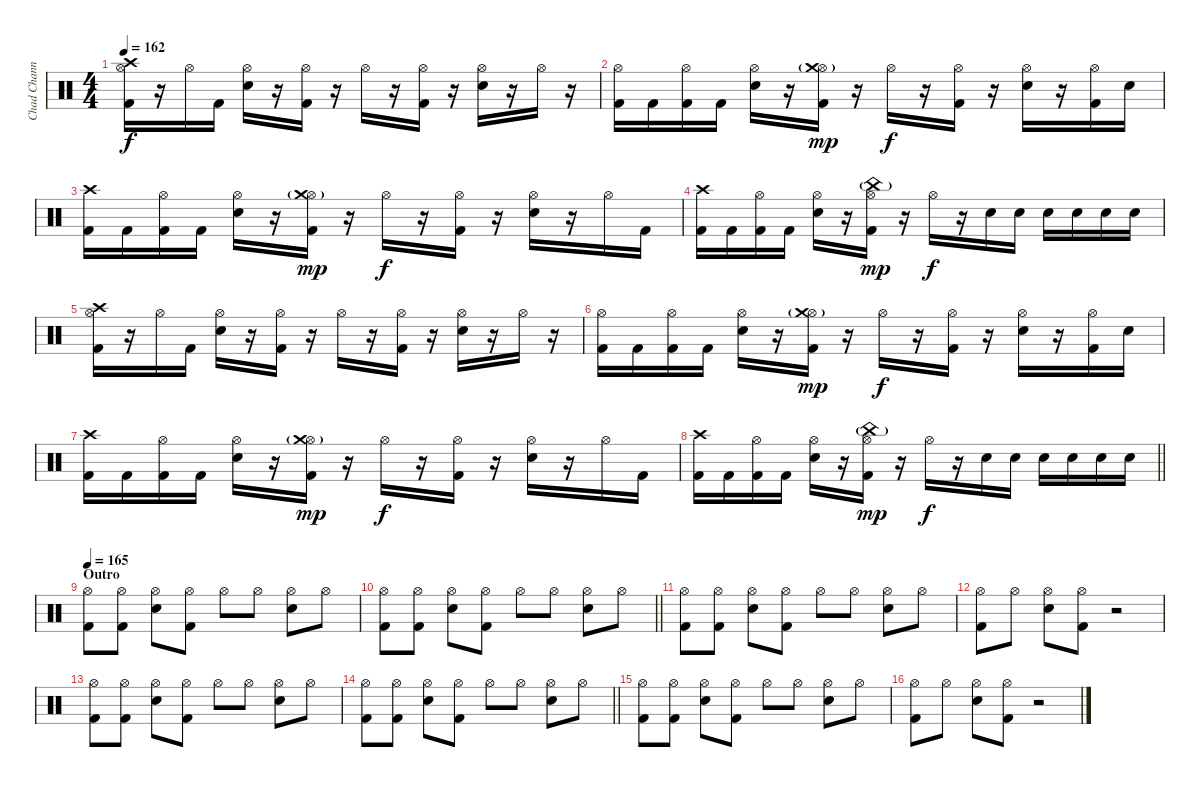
\track ("Chad Channing" "Chad Chann") {instrument percussion}
\staff {score}
\articulation defaults
\ts (4 4)
\tempo 162
\clef neutral
\ks c
("Crash high (hit)" "Hi-Hat (open)" "Kick (hit) 2").16{dy f} r.16 "Hi-Hat (open)".16 "Kick (hit) 2".16 ("Hi-Hat (open)" "Snare (hit) 2").16 r.16 ("Hi-Hat (open)" "Kick (hit) 2").16 r.16 "Hi-Hat (open)".16 r.16 ("Hi-Hat (open)" "Kick (hit) 2").16 r.16 ("Hi-Hat (open)" "Snare (hit) 2").16 r.16 "Hi-Hat (open)".16 r.16 |
("Hi-Hat (open)" "Kick (hit) 2").16 "Kick (hit) 2".16 ("Hi-Hat (open)" "Kick (hit) 2").16 "Kick (hit) 2".16 ("Hi-Hat (open)" "Snare (hit) 2").16 r.16 ("Hi-Hat (open)" "Crash medium (hit)"{g} "Kick (hit) 2").16{dy mp} r.16 "Hi-Hat (open)".16{dy f} r.16 ("Hi-Hat (open)" "Kick (hit) 2").16 r.16 ("Hi-Hat (open)" "Snare (hit) 2").16 r.16 ("Hi-Hat (open)" "Kick (hit) 2").16 "Snare (hit) 2".16 |
("Crash high (hit)" "Kick (hit) 2").16 "Kick (hit) 2".16 ("Hi-Hat (open)" "Kick (hit) 2").16 "Kick (hit) 2".16 ("Hi-Hat (open)" "Snare (hit) 2").16 r.16 ("Hi-Hat (open)" "Crash medium (hit)"{g} "Kick (hit) 2").16{dy mp} r.16 "Hi-Hat (open)".16{dy f} r.16 ("Hi-Hat (open)" "Kick (hit) 2").16 r.16 ("Hi-Hat (open)" "Snare (hit) 2").16 r.16 "Hi-Hat (open)".16 "Kick (hit) 2".16 |
("Crash high (hit)" "Kick (hit) 2").16 "Kick (hit) 2".16 ("Hi-Hat (open)" "Kick (hit) 2").16 "Kick (hit) 2".16 ("Hi-Hat (open)" "Snare (hit) 2").16 r.16 ("Hi-Hat (open)" "China (hit)"{g} "Kick (hit) 2").16{dy mp} r.16 "Hi-Hat (open)".16{dy f} r.16 "Snare (hit) 2".16 "Snare (hit) 2".16 "Snare (hit) 2".16 "Snare (hit) 2".16 "Snare (hit) 2".16 "Snare (hit) 2".16 |
("Crash high (hit)" "Hi-Hat (open)" "Kick (hit) 2").16 r.16 "Hi-Hat (open)".16 "Kick (hit) 2".16 ("Hi-Hat (open)" "Snare (hit) 2").16 r.16 ("Hi-Hat (open)" "Kick (hit) 2").16 r.16 "Hi-Hat (open)".16 r.16 ("Hi-Hat (open)" "Kick (hit) 2").16 r.16 ("Hi-Hat (open)" "Snare (hit) 2").16 r.16 "Hi-Hat (open)".16 r.16 |
("Hi-Hat (open)" "Kick (hit) 2").16 "Kick (hit) 2".16 ("Hi-Hat (open)" "Kick (hit) 2").16 "Kick (hit) 2".16 ("Hi-Hat (open)" "Snare (hit) 2").16 r.16 ("Hi-Hat (open)" "Crash medium (hit)"{g} "Kick (hit) 2").16{dy mp} r.16 "Hi-Hat (open)".16{dy f} r.16 ("Hi-Hat (open)" "Kick (hit) 2").16 r.16 ("Hi-Hat (open)" "Snare (hit) 2").16 r.16 ("Hi-Hat (open)" "Kick (hit) 2").16 "Snare (hit) 2".16 |
("Crash high (hit)" "Kick (hit) 2").16 "Kick (hit) 2".16 ("Hi-Hat (open)" "Kick (hit) 2").16 "Kick (hit) 2".16 ("Hi-Hat (open)" "Snare (hit) 2").16 r.16 ("Hi-Hat (open)" "Crash medium (hit)"{g} "Kick (hit) 2").16{dy mp} r.16 "Hi-Hat (open)".16{dy f} r.16 ("Hi-Hat (open)" "Kick (hit) 2").16 r.16 ("Hi-Hat (open)" "Snare (hit) 2").16 r.16 "Hi-Hat (open)".16 "Kick (hit) 2".16 |
\barLineRight lightlight
("Crash high (hit)" "Kick (hit) 2").16 "Kick (hit) 2".16 ("Hi-Hat (open)" "Kick (hit) 2").16 "Kick (hit) 2".16 ("Hi-Hat (open)" "Snare (hit) 2").16 r.16 ("Hi-Hat (open)" "China (hit)"{g} "Kick (hit) 2").16{dy mp} r.16 "Hi-Hat (open)".16{dy f} r.16 "Snare (hit) 2".16 "Snare (hit) 2".16 "Snare (hit) 2".16 "Snare (hit) 2".16 "Snare (hit) 2".16 "Snare (hit) 2".16 |
\section ("" "Outro")
\tempo 165
("Hi-Hat (open)" "Kick (hit) 2").8 ("Hi-Hat (open)" "Kick (hit) 2").8 ("Hi-Hat (open)" "Snare (hit) 2").8 ("Hi-Hat (open)" "Kick (hit) 2").8 "Hi-Hat (open)".8 "Hi-Hat (open)".8 ("Hi-Hat (open)" "Snare (hit) 2").8 "Hi-Hat (open)".8 |
\barLineRight lightlight
("Hi-Hat (open)" "Kick (hit) 2").8 ("Hi-Hat (open)" "Kick (hit) 2").8 ("Hi-Hat (open)" "Snare (hit) 2").8 ("Hi-Hat (open)" "Kick (hit) 2").8 "Hi-Hat (open)".8 "Hi-Hat (open)".8 ("Hi-Hat (open)" "Snare (hit) 2").8 "Hi-Hat (open)".8 |
("Hi-Hat (open)" "Kick (hit) 2").8 ("Hi-Hat (open)" "Kick (hit) 2").8 ("Hi-Hat (open)" "Snare (hit) 2").8 ("Hi-Hat (open)" "Kick (hit) 2").8 "Hi-Hat (open)".8 "Hi-Hat (open)".8 ("Hi-Hat (open)" "Snare (hit) 2").8 "Hi-Hat (open)".8 |
("Hi-Hat (open)" "Kick (hit) 2").8 "Hi-Hat (open)".8 ("Hi-Hat (open)" "Snare (hit) 2").8 ("Hi-Hat (open)" "Kick (hit) 2").8 r.2 |
("Hi-Hat (open)" "Kick (hit) 2").8 ("Hi-Hat (open)" "Kick (hit) 2").8 ("Hi-Hat (open)" "Snare (hit) 2").8 ("Hi-Hat (open)" "Kick (hit) 2").8 "Hi-Hat (open)".8 "Hi-Hat (open)".8 ("Hi-Hat (open)" "Snare (hit) 2").8 "Hi-Hat (open)".8 |
\barLineRight lightlight
("Hi-Hat (open)" "Kick (hit) 2").8 ("Hi-Hat (open)" "Kick (hit) 2").8 ("Hi-Hat (open)" "Snare (hit) 2").8 ("Hi-Hat (open)" "Kick (hit) 2").8 "Hi-Hat (open)".8 "Hi-Hat (open)".8 ("Hi-Hat (open)" "Snare (hit) 2").8 "Hi-Hat (open)".8 |
("Hi-Hat (open)" "Kick (hit) 2").8 ("Hi-Hat (open)" "Kick (hit) 2").8 ("Hi-Hat (open)" "Snare (hit) 2").8 ("Hi-Hat (open)" "Kick (hit) 2").8 "Hi-Hat (open)".8 "Hi-Hat (open)".8 ("Hi-Hat (open)" "Snare (hit) 2").8 "Hi-Hat (open)".8 |
("Hi-Hat (open)" "Kick (hit) 2").8 "Hi-Hat (open)".8 ("Hi-Hat (open)" "Snare (hit) 2").8 ("Hi-Hat (open)" "Kick (hit) 2").8 r.2
